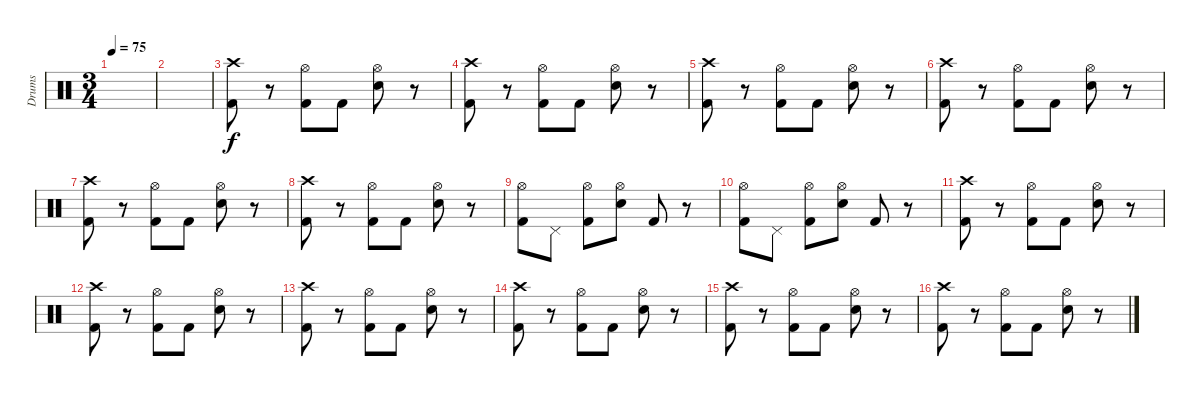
\track ("Drums" "Drums") {instrument percussion}
\staff {score}
\articulation defaults
\ts (3 4)
\tempo 75
\clef neutral
\ks c
|
|
("Crash high (hit)" "Kick (hit) 2").8 r.8 ("Hi-Hat (open)" "Kick (hit) 2").8 "Kick (hit) 2".8 ("Hi-Hat (open)" "Electric Snare (hit)").8 r.8 |
("Crash high (hit)" "Kick (hit) 2").8 r.8 ("Hi-Hat (open)" "Kick (hit) 2").8 "Kick (hit) 2".8 ("Hi-Hat (open)" "Electric Snare (hit)").8 r.8 |
("Crash high (hit)" "Kick (hit) 2").8 r.8 ("Hi-Hat (open)" "Kick (hit) 2").8 "Kick (hit) 2".8 ("Hi-Hat (open)" "Electric Snare (hit)").8 r.8 |
("Crash high (hit)" "Kick (hit) 2").8 r.8 ("Hi-Hat (open)" "Kick (hit) 2").8 "Kick (hit) 2".8 ("Hi-Hat (open)" "Electric Snare (hit)").8 r.8 |
("Crash high (hit)" "Kick (hit) 2").8 r.8 ("Hi-Hat (open)" "Kick (hit) 2").8 "Kick (hit) 2".8 ("Hi-Hat (open)" "Electric Snare (hit)").8 r.8 |
("Crash high (hit)" "Kick (hit) 2").8 r.8 ("Hi-Hat (open)" "Kick (hit) 2").8 "Kick (hit) 2".8 ("Hi-Hat (open)" "Electric Snare (hit)").8 r.8 |
("Hi-Hat (open)" "Kick (hit) 2").8 "Pedal Hi-Hat (hit)".8 ("Hi-Hat (open)" "Kick (hit) 2").8 ("Hi-Hat (open)" "Electric Snare (hit)").8 "Kick (hit) 2".8 r.8 |
("Hi-Hat (open)" "Kick (hit) 2").8 "Pedal Hi-Hat (hit)".8 ("Hi-Hat (open)" "Kick (hit) 2").8 ("Hi-Hat (open)" "Electric Snare (hit)").8 "Kick (hit) 2".8 r.8 |
("Crash high (hit)" "Kick (hit) 2").8 r.8 ("Hi-Hat (open)" "Kick (hit) 2").8 "Kick (hit) 2".8 ("Hi-Hat (open)" "Electric Snare (hit)").8 r.8 |
("Crash high (hit)" "Kick (hit) 2").8 r.8 ("Hi-Hat (open)" "Kick (hit) 2").8 "Kick (hit) 2".8 ("Hi-Hat (open)" "Electric Snare (hit)").8 r.8 |
("Crash high (hit)" "Kick (hit) 2").8 r.8 ("Hi-Hat (open)" "Kick (hit) 2").8 "Kick (hit) 2".8 ("Hi-Hat (open)" "Electric Snare (hit)").8 r.8 |
("Crash high (hit)" "Kick (hit) 2").8 r.8 ("Hi-Hat (open)" "Kick (hit) 2").8 "Kick (hit) 2".8 ("Hi-Hat (open)" "Electric Snare (hit)").8 r.8 |
("Crash high (hit)" "Kick (hit) 2").8 r.8 ("Hi-Hat (open)" "Kick (hit) 2").8 "Kick (hit) 2".8 ("Hi-Hat (open)" "Electric Snare (hit)").8 r.8 |
("Crash high (hit)" "Kick (hit) 2").8 r.8 ("Hi-Hat (open)" "Kick (hit) 2").8 "Kick (hit) 2".8 ("Hi-Hat (open)" "Electric Snare (hit)").8 r.8
